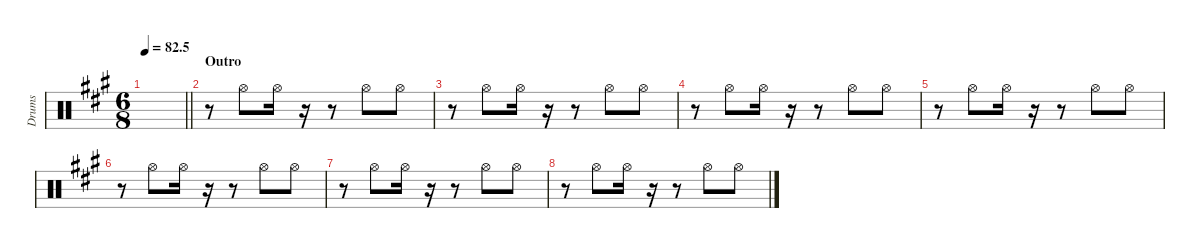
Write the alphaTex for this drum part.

\defaultSystemsLayout 4
\hideDynamics
\bracketExtendMode nobrackets
\otherSystemsTrackNameOrientation horizontal
\track ("Hihat" "Drums") {instrument percussion}
\staff {score}
\articulation defaults
\ts (6 8)
\tempo
82.5
\accidentals auto
\clef neutral
\ottava regular
\simile none
\scale
0.333333
\barLineRight lightlight
\ks a
|
\section ("" "Outro")
\scale
0.333333 r.8 "Hi-Hat (open)"{acc forcenatural}.8 "Hi-Hat (open)"{acc forcenatural}.16 r.16 r.8 "Hi-Hat (open)"{acc forcenatural}.8 "Hi-Hat (open)"{acc forcenatural}.8 |
\scale
0.333333 r.8 "Hi-Hat (open)"{acc forcenatural}.8 "Hi-Hat (open)"{acc forcenatural}.16 r.16 r.8 "Hi-Hat (open)"{acc forcenatural}.8 "Hi-Hat (open)"{acc forcenatural}.8 |
\scale
0.333333 r.8 "Hi-Hat (open)"{acc forcenatural}.8 "Hi-Hat (open)"{acc forcenatural}.16 r.16 r.8 "Hi-Hat (open)"{acc forcenatural}.8 "Hi-Hat (open)"{acc forcenatural}.8 |
\scale
0.333333 r.8 "Hi-Hat (open)"{acc forcenatural}.8 "Hi-Hat (open)"{acc forcenatural}.16 r.16 r.8 "Hi-Hat (open)"{acc forcenatural}.8 "Hi-Hat (open)"{acc forcenatural}.8 |
\scale
0.333333 r.8 "Hi-Hat (open)"{acc forcenatural}.8 "Hi-Hat (open)"{acc forcenatural}.16 r.16 r.8 "Hi-Hat (open)"{acc forcenatural}.8 "Hi-Hat (open)"{acc forcenatural}.8 |
\scale
0.333333 r.8 "Hi-Hat (open)"{acc forcenatural}.8 "Hi-Hat (open)"{acc forcenatural}.16 r.16 r.8 "Hi-Hat (open)"{acc forcenatural}.8 "Hi-Hat (open)"{acc forcenatural}.8 |
\scale
0.333333 r.8 "Hi-Hat (open)"{acc forcenatural}.8 "Hi-Hat (open)"{acc forcenatural}.16 r.16 r.8 "Hi-Hat (open)"{acc forcenatural}.8 "Hi-Hat (open)"{acc forcenatural}.8 |
\scale
0.333333 |
\scale
0.333333 |
\scale
0.333333 |
\scale
0.333333
